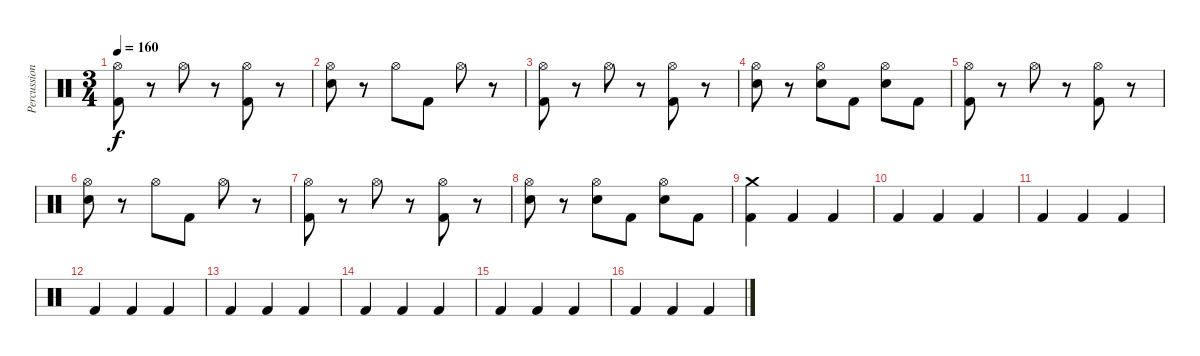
\track ("Percussion" "Percussion") {instrument percussion}
\staff {score}
\articulation defaults
\ts (3 4)
\tempo 160
\clef neutral
\ks c
("Hi-Hat (open)" "Kick (hit) 2").8{dy f} r.8 "Hi-Hat (open)".8 r.8 ("Hi-Hat (open)" "Kick (hit) 2").8 r.8 |
("Hi-Hat (open)" "Snare (hit) 2").8 r.8 "Hi-Hat (open)".8 "Kick (hit) 2".8 "Hi-Hat (open)".8 r.8 |
("Hi-Hat (open)" "Kick (hit) 2").8 r.8 "Hi-Hat (open)".8 r.8 ("Hi-Hat (open)" "Kick (hit) 2").8 r.8 |
("Hi-Hat (open)" "Snare (hit) 2").8 r.8 ("Hi-Hat (open)" "Snare (hit) 2").8 "Kick (hit) 2".8 ("Hi-Hat (open)" "Snare (hit) 2").8 "Kick (hit) 2".8 |
("Hi-Hat (open)" "Kick (hit) 2").8 r.8 "Hi-Hat (open)".8 r.8 ("Hi-Hat (open)" "Kick (hit) 2").8 r.8 |
("Hi-Hat (open)" "Snare (hit) 2").8 r.8 "Hi-Hat (open)".8 "Kick (hit) 2".8 "Hi-Hat (open)".8 r.8 |
("Hi-Hat (open)" "Kick (hit) 2").8 r.8 "Hi-Hat (open)".8 r.8 ("Hi-Hat (open)" "Kick (hit) 2").8 r.8 |
("Hi-Hat (open)" "Snare (hit) 2").8 r.8 ("Hi-Hat (open)" "Snare (hit) 2").8 "Kick (hit) 2".8 ("Hi-Hat (open)" "Snare (hit) 2").8 "Kick (hit) 2".8 |
("Crash medium (hit)" "Kick (hit) 2").4 "Kick (hit) 2".4 "Kick (hit) 2".4 |
"Kick (hit) 2".4 "Kick (hit) 2".4 "Kick (hit) 2".4 |
"Kick (hit) 2".4 "Kick (hit) 2".4 "Kick (hit) 2".4 |
"Kick (hit) 2".4 "Kick (hit) 2".4 "Kick (hit) 2".4 |
"Kick (hit) 2".4 "Kick (hit) 2".4 "Kick (hit) 2".4 |
"Kick (hit) 2".4 "Kick (hit) 2".4 "Kick (hit) 2".4 |
"Kick (hit) 2".4 "Kick (hit) 2".4 "Kick (hit) 2".4 |
"Kick (hit) 2".4 "Kick (hit) 2".4 "Kick (hit) 2".4
